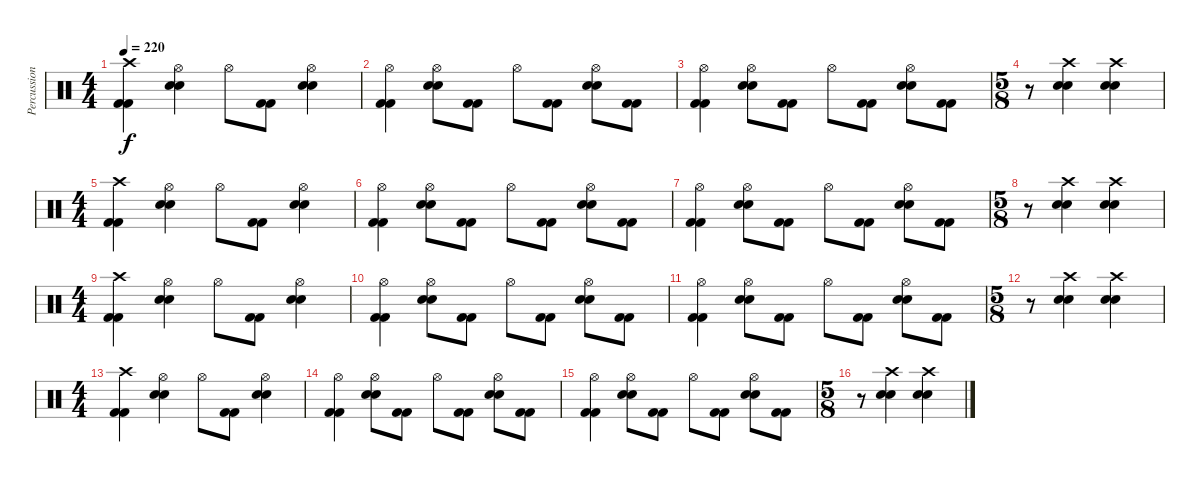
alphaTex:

\track ("Percussion" "Percussion") {instrument percussion}
\staff {score}
\articulation defaults
\ts (4 4)
\tempo 220
\clef neutral
\ks c
("Crash high (hit)" "Kick (hit) 2" "Kick (hit) 2").4{dy f} ("Hi-Hat (open)" "Electric Snare (hit)" "Electric Snare (hit)").4 "Hi-Hat (open)".8 ("Kick (hit) 2" "Kick (hit) 2").8 ("Hi-Hat (open)" "Electric Snare (hit)" "Electric Snare (hit)").4 |
("Hi-Hat (open)" "Kick (hit) 2" "Kick (hit) 2").4 ("Hi-Hat (open)" "Electric Snare (hit)" "Electric Snare (hit)").8 ("Kick (hit) 2" "Kick (hit) 2").8 "Hi-Hat (open)".8 ("Kick (hit) 2" "Kick (hit) 2").8 ("Hi-Hat (open)" "Electric Snare (hit)" "Electric Snare (hit)").8 ("Kick (hit) 2" "Kick (hit) 2").8 |
("Hi-Hat (open)" "Kick (hit) 2" "Kick (hit) 2").4 ("Hi-Hat (open)" "Electric Snare (hit)" "Electric Snare (hit)").8 ("Kick (hit) 2" "Kick (hit) 2").8 "Hi-Hat (open)".8 ("Kick (hit) 2" "Kick (hit) 2").8 ("Hi-Hat (open)" "Electric Snare (hit)" "Electric Snare (hit)").8 ("Kick (hit) 2" "Kick (hit) 2").8 |
\ts (5 8)
r.8 ("Crash high (hit)" "Electric Snare (hit)" "Electric Snare (hit)").4 ("Crash high (hit)" "Electric Snare (hit)" "Electric Snare (hit)").4 |
\ts (4 4)
("Crash high (hit)" "Kick (hit) 2" "Kick (hit) 2").4 ("Hi-Hat (open)" "Electric Snare (hit)" "Electric Snare (hit)").4 "Hi-Hat (open)".8 ("Kick (hit) 2" "Kick (hit) 2").8 ("Hi-Hat (open)" "Electric Snare (hit)" "Electric Snare (hit)").4 |
("Hi-Hat (open)" "Kick (hit) 2" "Kick (hit) 2").4 ("Hi-Hat (open)" "Electric Snare (hit)" "Electric Snare (hit)").8 ("Kick (hit) 2" "Kick (hit) 2").8 "Hi-Hat (open)".8 ("Kick (hit) 2" "Kick (hit) 2").8 ("Hi-Hat (open)" "Electric Snare (hit)" "Electric Snare (hit)").8 ("Kick (hit) 2" "Kick (hit) 2").8 |
("Hi-Hat (open)" "Kick (hit) 2" "Kick (hit) 2").4 ("Hi-Hat (open)" "Electric Snare (hit)" "Electric Snare (hit)").8 ("Kick (hit) 2" "Kick (hit) 2").8 "Hi-Hat (open)".8 ("Kick (hit) 2" "Kick (hit) 2").8 ("Hi-Hat (open)" "Electric Snare (hit)" "Electric Snare (hit)").8 ("Kick (hit) 2" "Kick (hit) 2").8 |
\ts (5 8)
r.8 ("Crash high (hit)" "Electric Snare (hit)" "Electric Snare (hit)").4 ("Crash high (hit)" "Electric Snare (hit)" "Electric Snare (hit)").4 |
\ts (4 4)
("Crash high (hit)" "Kick (hit) 2" "Kick (hit) 2").4 ("Hi-Hat (open)" "Electric Snare (hit)" "Electric Snare (hit)").4 "Hi-Hat (open)".8 ("Kick (hit) 2" "Kick (hit) 2").8 ("Hi-Hat (open)" "Electric Snare (hit)" "Electric Snare (hit)").4 |
("Hi-Hat (open)" "Kick (hit) 2" "Kick (hit) 2").4 ("Hi-Hat (open)" "Electric Snare (hit)" "Electric Snare (hit)").8 ("Kick (hit) 2" "Kick (hit) 2").8 "Hi-Hat (open)".8 ("Kick (hit) 2" "Kick (hit) 2").8 ("Hi-Hat (open)" "Electric Snare (hit)" "Electric Snare (hit)").8 ("Kick (hit) 2" "Kick (hit) 2").8 |
("Hi-Hat (open)" "Kick (hit) 2" "Kick (hit) 2").4 ("Hi-Hat (open)" "Electric Snare (hit)" "Electric Snare (hit)").8 ("Kick (hit) 2" "Kick (hit) 2").8 "Hi-Hat (open)".8 ("Kick (hit) 2" "Kick (hit) 2").8 ("Hi-Hat (open)" "Electric Snare (hit)" "Electric Snare (hit)").8 ("Kick (hit) 2" "Kick (hit) 2").8 |
\ts (5 8)
r.8 ("Crash high (hit)" "Electric Snare (hit)" "Electric Snare (hit)").4 ("Crash high (hit)" "Electric Snare (hit)" "Electric Snare (hit)").4 |
\ts (4 4)
("Crash high (hit)" "Kick (hit) 2" "Kick (hit) 2").4 ("Hi-Hat (open)" "Electric Snare (hit)" "Electric Snare (hit)").4 "Hi-Hat (open)".8 ("Kick (hit) 2" "Kick (hit) 2").8 ("Hi-Hat (open)" "Electric Snare (hit)" "Electric Snare (hit)").4 |
("Hi-Hat (open)" "Kick (hit) 2" "Kick (hit) 2").4 ("Hi-Hat (open)" "Electric Snare (hit)" "Electric Snare (hit)").8 ("Kick (hit) 2" "Kick (hit) 2").8 "Hi-Hat (open)".8 ("Kick (hit) 2" "Kick (hit) 2").8 ("Hi-Hat (open)" "Electric Snare (hit)" "Electric Snare (hit)").8 ("Kick (hit) 2" "Kick (hit) 2").8 |
("Hi-Hat (open)" "Kick (hit) 2" "Kick (hit) 2").4 ("Hi-Hat (open)" "Electric Snare (hit)" "Electric Snare (hit)").8 ("Kick (hit) 2" "Kick (hit) 2").8 "Hi-Hat (open)".8 ("Kick (hit) 2" "Kick (hit) 2").8 ("Hi-Hat (open)" "Electric Snare (hit)" "Electric Snare (hit)").8 ("Kick (hit) 2" "Kick (hit) 2").8 |
\ts (5 8)
r.8 ("Crash high (hit)" "Electric Snare (hit)" "Electric Snare (hit)").4 ("Crash high (hit)" "Electric Snare (hit)" "Electric Snare (hit)").4
